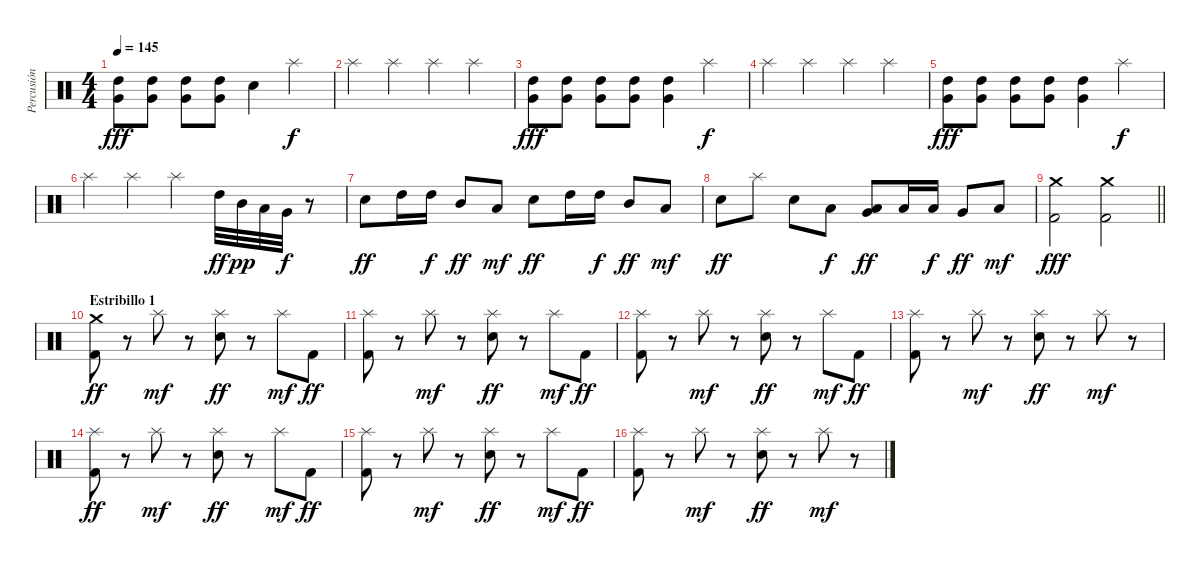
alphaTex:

\track ("Percusión" "Percusión") {instrument percussion}
\staff {score}
\articulation defaults
\ts (4 4)
\tempo 145
\clef neutral
\ks c
("High Tom (hit)" "Very Low Tom (hit)").8{dy fff} ("High Tom (hit)" "Very Low Tom (hit)").8 ("High Tom (hit)" "Very Low Tom (hit)").8 ("High Tom (hit)" "Very Low Tom (hit)").8 "Electric Snare (hit)".4 "Splash (hit)".4{dy f} |
"Splash (hit)".4 "Splash (hit)".4 "Splash (hit)".4 "Splash (hit)".4 |
("High Tom (hit)" "Very Low Tom (hit)").8{dy fff} ("High Tom (hit)" "Very Low Tom (hit)").8 ("High Tom (hit)" "Very Low Tom (hit)").8 ("High Tom (hit)" "Very Low Tom (hit)").8 ("High Tom (hit)" "Very Low Tom (hit)").4 "Splash (hit)".4{dy f} |
"Splash (hit)".4 "Splash (hit)".4 "Splash (hit)".4 "Splash (hit)".4 |
("High Tom (hit)" "Very Low Tom (hit)").8{dy fff} ("High Tom (hit)" "Very Low Tom (hit)").8 ("High Tom (hit)" "Very Low Tom (hit)").8 ("High Tom (hit)" "Very Low Tom (hit)").8 ("High Tom (hit)" "Very Low Tom (hit)").4 "Splash (hit)".4{dy f} |
"Splash (hit)".4 "Splash (hit)".4 "Splash (hit)".4 "High Tom (hit)".32{dy ff} "Mid Tom (hit)".32{dy pp} "Low Tom (hit)".32 "Very Low Tom (hit)".32{dy f} r.8 |
"Electric Snare (hit)".8{dy ff} "High Tom (hit)".16 "High Tom (hit)".16{dy f} "Mid Tom (hit)".8{dy ff} "Low Tom (hit)".8{dy mf} "Electric Snare (hit)".8{dy ff} "High Tom (hit)".16 "High Tom (hit)".16{dy f} "Mid Tom (hit)".8{dy ff} "Low Tom (hit)".8{dy mf} |
"Electric Snare (hit)".8{dy ff} "Splash (hit)".8 "Electric Snare (hit)".8 "Low Tom (hit)".8{dy f} ("Very Low Tom (hit)" "Low Tom (hit)").8{dy ff} "Low Tom (hit)".16 "Low Tom (hit)".16{dy f} "Very Low Tom (hit)".8{dy ff} "Low Floor Tom (hit)".8{dy mf} |
\barLineRight lightlight
("Crash medium (hit)" "Kick (hit) 2").2{dy fff} ("Crash medium (hit)" "Kick (hit) 2").2 |
\section ("" "Estribillo 1")
("Crash medium (hit)" "Kick (hit) 2").8{dy ff} r.8 "Splash (hit)".8{dy mf} r.8 ("Splash (hit)" "Electric Snare (hit)").8{dy ff} r.8 "Splash (hit)".8{dy mf} "Kick (hit) 2".8{dy ff} |
("Splash (hit)" "Kick (hit) 2").8 r.8 "Splash (hit)".8{dy mf} r.8 ("Splash (hit)" "Electric Snare (hit)").8{dy ff} r.8 "Splash (hit)".8{dy mf} "Kick (hit) 2".8{dy ff} |
("Splash (hit)" "Kick (hit) 2").8 r.8 "Splash (hit)".8{dy mf} r.8 ("Splash (hit)" "Electric Snare (hit)").8{dy ff} r.8 "Splash (hit)".8{dy mf} "Kick (hit) 2".8{dy ff} |
("Splash (hit)" "Kick (hit) 2").8 r.8 "Splash (hit)".8{dy mf} r.8 ("Splash (hit)" "Electric Snare (hit)").8{dy ff} r.8 "Splash (hit)".8{dy mf} r.8 |
("Splash (hit)" "Kick (hit) 2").8{dy ff} r.8 "Splash (hit)".8{dy mf} r.8 ("Splash (hit)" "Electric Snare (hit)").8{dy ff} r.8 "Splash (hit)".8{dy mf} "Kick (hit) 2".8{dy ff} |
("Splash (hit)" "Kick (hit) 2").8 r.8 "Splash (hit)".8{dy mf} r.8 ("Splash (hit)" "Electric Snare (hit)").8{dy ff} r.8 "Splash (hit)".8{dy mf} "Kick (hit) 2".8{dy ff} |
("Splash (hit)" "Kick (hit) 2").8 r.8 "Splash (hit)".8{dy mf} r.8 ("Splash (hit)" "Electric Snare (hit)").8{dy ff} r.8 "Splash (hit)".8{dy mf} r.8
